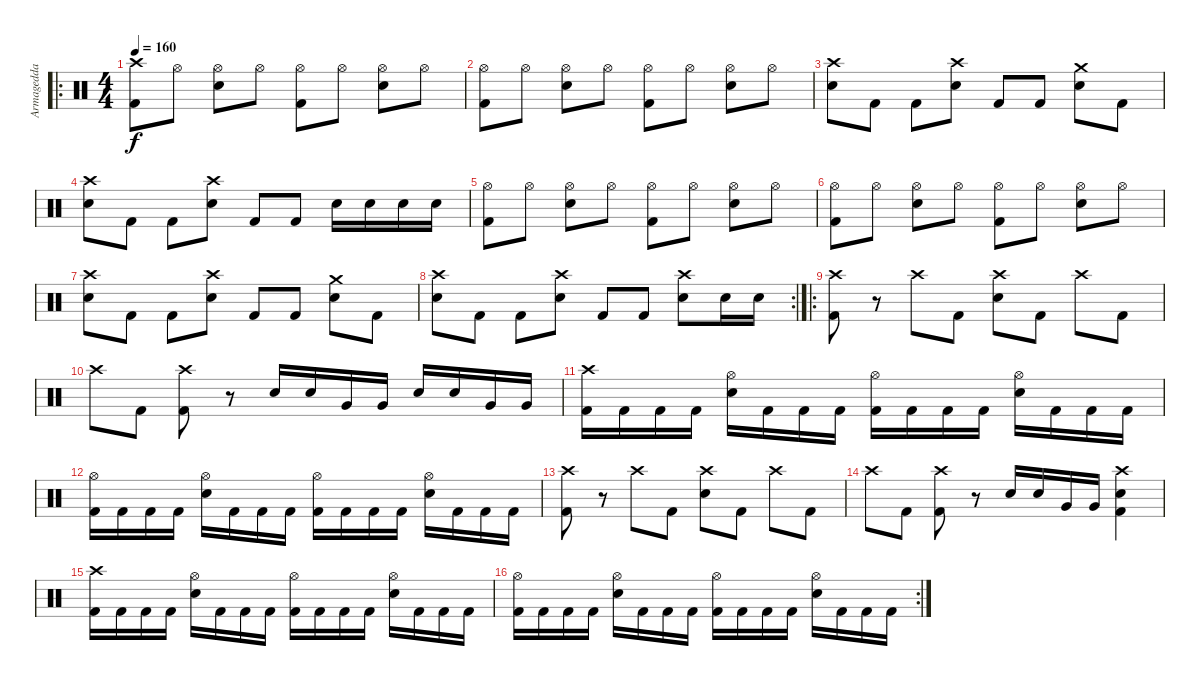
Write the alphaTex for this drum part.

\track ("Armagedda" "Armagedda") {instrument percussion}
\staff {score}
\articulation defaults
\ro
\ts (4 4)
\tempo 160
\clef neutral
\ks c
("Crash high (hit)" "Kick (hit) 2").8{dy f} "Hi-Hat (open)".8 ("Hi-Hat (open)" "Snare (hit) 2").8 "Hi-Hat (open)".8 ("Hi-Hat (open)" "Kick (hit) 2").8 "Hi-Hat (open)".8 ("Hi-Hat (open)" "Snare (hit) 2").8 "Hi-Hat (open)".8 |
("Hi-Hat (open)" "Kick (hit) 2").8 "Hi-Hat (open)".8 ("Hi-Hat (open)" "Snare (hit) 2").8 "Hi-Hat (open)".8 ("Hi-Hat (open)" "Kick (hit) 2").8 "Hi-Hat (open)".8 ("Hi-Hat (open)" "Snare (hit) 2").8 "Hi-Hat (open)".8 |
("Crash high (hit)" "Snare (hit) 2").8 "Kick (hit) 2".8 "Kick (hit) 2".8 ("Crash high (hit)" "Snare (hit) 2").8 "Kick (hit) 2".8 "Kick (hit) 2".8 ("Crash medium (hit)" "Snare (hit) 2").8 "Kick (hit) 2".8 |
("Crash high (hit)" "Snare (hit) 2").8 "Kick (hit) 2".8 "Kick (hit) 2".8 ("Crash high (hit)" "Snare (hit) 2").8 "Kick (hit) 2".8 "Kick (hit) 2".8 "Snare (hit) 2".16 "Snare (hit) 2".16 "Snare (hit) 2".16 "Snare (hit) 2".16 |
("Hi-Hat (open)" "Kick (hit) 2").8 "Hi-Hat (open)".8 ("Hi-Hat (open)" "Snare (hit) 2").8 "Hi-Hat (open)".8 ("Hi-Hat (open)" "Kick (hit) 2").8 "Hi-Hat (open)".8 ("Hi-Hat (open)" "Snare (hit) 2").8 "Hi-Hat (open)".8 |
("Hi-Hat (open)" "Kick (hit) 2").8 "Hi-Hat (open)".8 ("Hi-Hat (open)" "Snare (hit) 2").8 "Hi-Hat (open)".8 ("Hi-Hat (open)" "Kick (hit) 2").8 "Hi-Hat (open)".8 ("Hi-Hat (open)" "Snare (hit) 2").8 "Hi-Hat (open)".8 |
("Crash high (hit)" "Snare (hit) 2").8 "Kick (hit) 2".8 "Kick (hit) 2".8 ("Crash high (hit)" "Snare (hit) 2").8 "Kick (hit) 2".8 "Kick (hit) 2".8 ("Crash medium (hit)" "Snare (hit) 2").8 "Kick (hit) 2".8 |
\rc 2
("Crash high (hit)" "Snare (hit) 2").8 "Kick (hit) 2".8 "Kick (hit) 2".8 ("Crash high (hit)" "Snare (hit) 2").8 "Kick (hit) 2".8 "Kick (hit) 2".8 ("Crash high (hit)" "Snare (hit) 2").8 "Snare (hit) 2".16 "Snare (hit) 2".16 |
\ro
("Crash high (hit)" "Kick (hit) 2").8 r.8 "Crash high (hit)".8 "Kick (hit) 2".8 ("Crash high (hit)" "Snare (hit) 2").8 "Kick (hit) 2".8 "Crash high (hit)".8 "Kick (hit) 2".8 |
"Crash high (hit)".8 "Kick (hit) 2".8 ("Crash high (hit)" "Kick (hit) 2").8 r.8 "Snare (hit) 2".16 "Snare (hit) 2".16 "Very Low Tom (hit)".16 "Very Low Tom (hit)".16 "Snare (hit) 2".16 "Snare (hit) 2".16 "Very Low Tom (hit)".16 "Very Low Tom (hit)".16 |
("Crash high (hit)" "Kick (hit) 2").16 "Kick (hit) 2".16 "Kick (hit) 2".16 "Kick (hit) 2".16 ("Hi-Hat (open)" "Snare (hit) 2").16 "Kick (hit) 2".16 "Kick (hit) 2".16 "Kick (hit) 2".16 ("Hi-Hat (open)" "Kick (hit) 2").16 "Kick (hit) 2".16 "Kick (hit) 2".16 "Kick (hit) 2".16 ("Hi-Hat (open)" "Snare (hit) 2").16 "Kick (hit) 2".16 "Kick (hit) 2".16 "Kick (hit) 2".16 |
("Hi-Hat (open)" "Kick (hit) 2").16 "Kick (hit) 2".16 "Kick (hit) 2".16 "Kick (hit) 2".16 ("Hi-Hat (open)" "Snare (hit) 2").16 "Kick (hit) 2".16 "Kick (hit) 2".16 "Kick (hit) 2".16 ("Hi-Hat (open)" "Kick (hit) 2").16 "Kick (hit) 2".16 "Kick (hit) 2".16 "Kick (hit) 2".16 ("Hi-Hat (open)" "Snare (hit) 2").16 "Kick (hit) 2".16 "Kick (hit) 2".16 "Kick (hit) 2".16 |
("Crash high (hit)" "Kick (hit) 2").8 r.8 "Crash high (hit)".8 "Kick (hit) 2".8 ("Crash high (hit)" "Snare (hit) 2").8 "Kick (hit) 2".8 "Crash high (hit)".8 "Kick (hit) 2".8 |
"Crash high (hit)".8 "Kick (hit) 2".8 ("Crash high (hit)" "Kick (hit) 2").8 r.8 "Snare (hit) 2".16 "Snare (hit) 2".16 "Very Low Tom (hit)".16 "Very Low Tom (hit)".16 ("Crash high (hit)" "Snare (hit) 2" "Kick (hit) 2").4 |
("Crash high (hit)" "Kick (hit) 2").16 "Kick (hit) 2".16 "Kick (hit) 2".16 "Kick (hit) 2".16 ("Hi-Hat (open)" "Snare (hit) 2").16 "Kick (hit) 2".16 "Kick (hit) 2".16 "Kick (hit) 2".16 ("Hi-Hat (open)" "Kick (hit) 2").16 "Kick (hit) 2".16 "Kick (hit) 2".16 "Kick (hit) 2".16 ("Hi-Hat (open)" "Snare (hit) 2").16 "Kick (hit) 2".16 "Kick (hit) 2".16 "Kick (hit) 2".16 |
\rc 2
("Hi-Hat (open)" "Kick (hit) 2").16 "Kick (hit) 2".16 "Kick (hit) 2".16 "Kick (hit) 2".16 ("Hi-Hat (open)" "Snare (hit) 2").16 "Kick (hit) 2".16 "Kick (hit) 2".16 "Kick (hit) 2".16 ("Hi-Hat (open)" "Kick (hit) 2").16 "Kick (hit) 2".16 "Kick (hit) 2".16 "Kick (hit) 2".16 ("Hi-Hat (open)" "Snare (hit) 2").16 "Kick (hit) 2".16 "Kick (hit) 2".16 "Kick (hit) 2".16
